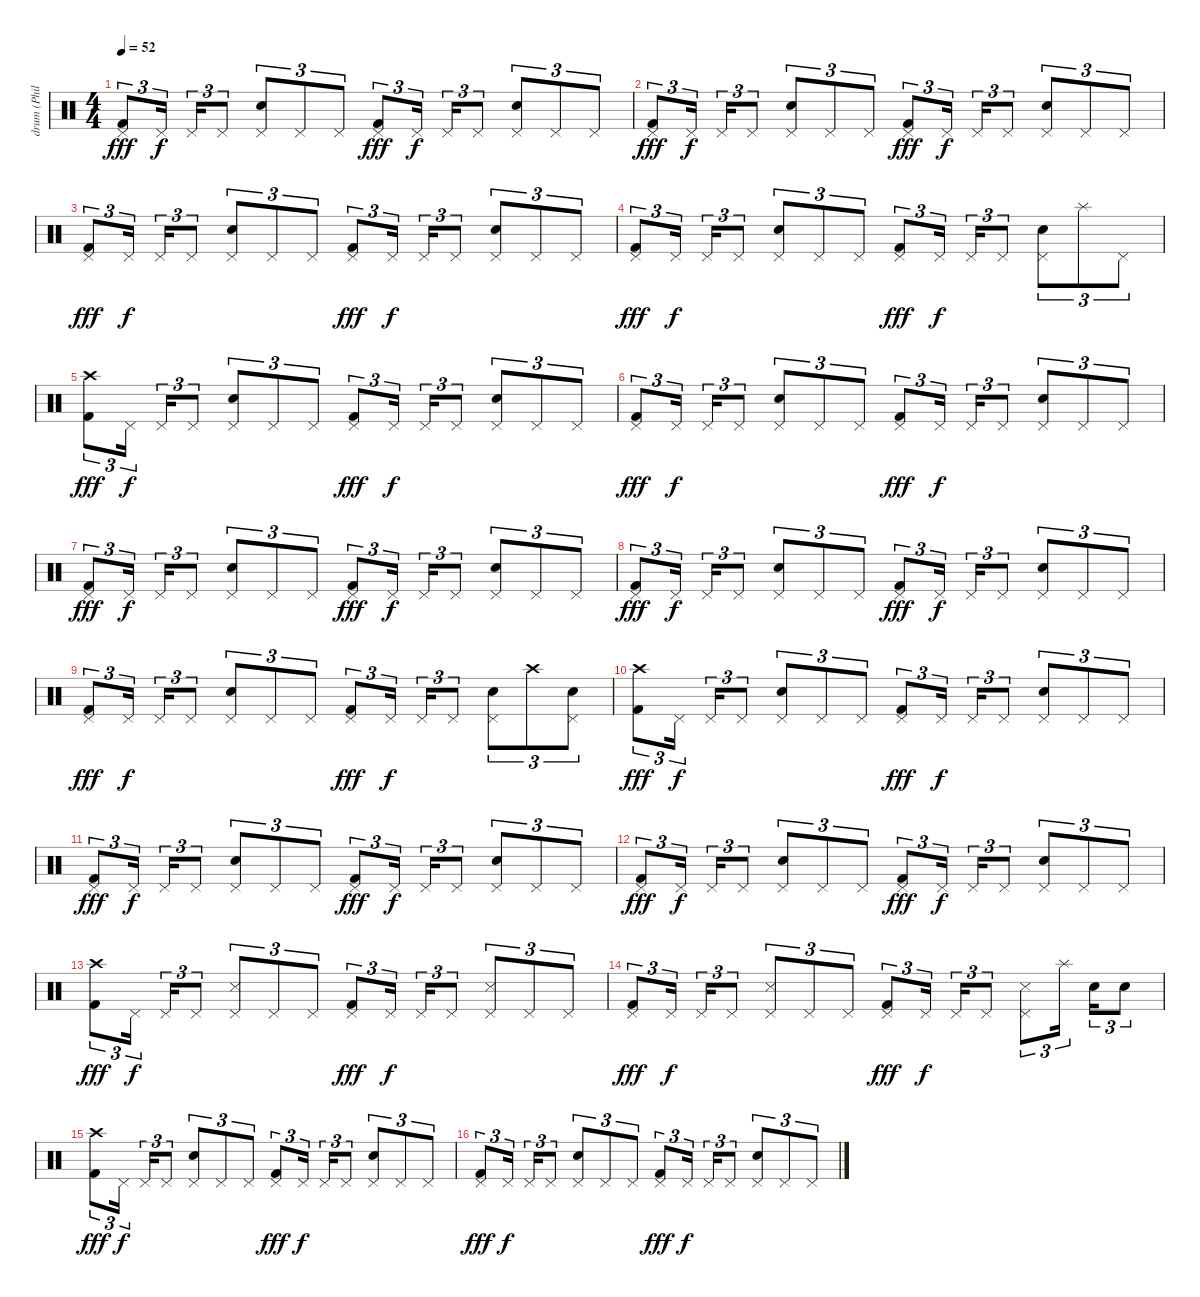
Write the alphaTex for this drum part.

\track ("drum (Phil)" "drum (Phil") {instrument percussion}
\staff {score}
\articulation defaults
\ts (4 4)
\tempo 52
\clef neutral
\ks c
("Pedal Hi-Hat (hit)" "Kick (hit) 2").8{tu (3 2) dy fff} "Pedal Hi-Hat (hit)".16{tu (3 2) dy f} "Pedal Hi-Hat (hit)".16{tu (3 2)} "Pedal Hi-Hat (hit)".8{tu (3 2)} ("Pedal Hi-Hat (hit)" "Electric Snare (hit)").8{tu (3 2)} "Pedal Hi-Hat (hit)".8{tu (3 2)} "Pedal Hi-Hat (hit)".8{tu (3 2)} ("Pedal Hi-Hat (hit)" "Kick (hit) 2").8{tu (3 2) dy fff} "Pedal Hi-Hat (hit)".16{tu (3 2) dy f} "Pedal Hi-Hat (hit)".16{tu (3 2)} "Pedal Hi-Hat (hit)".8{tu (3 2)} ("Pedal Hi-Hat (hit)" "Electric Snare (hit)").8{tu (3 2)} "Pedal Hi-Hat (hit)".8{tu (3 2)} "Pedal Hi-Hat (hit)".8{tu (3 2)} |
("Pedal Hi-Hat (hit)" "Kick (hit) 2").8{tu (3 2) dy fff} "Pedal Hi-Hat (hit)".16{tu (3 2) dy f} "Pedal Hi-Hat (hit)".16{tu (3 2)} "Pedal Hi-Hat (hit)".8{tu (3 2)} ("Pedal Hi-Hat (hit)" "Electric Snare (hit)").8{tu (3 2)} "Pedal Hi-Hat (hit)".8{tu (3 2)} "Pedal Hi-Hat (hit)".8{tu (3 2)} ("Pedal Hi-Hat (hit)" "Kick (hit) 2").8{tu (3 2) dy fff} "Pedal Hi-Hat (hit)".16{tu (3 2) dy f} "Pedal Hi-Hat (hit)".16{tu (3 2)} "Pedal Hi-Hat (hit)".8{tu (3 2)} ("Pedal Hi-Hat (hit)" "Electric Snare (hit)").8{tu (3 2)} "Pedal Hi-Hat (hit)".8{tu (3 2)} "Pedal Hi-Hat (hit)".8{tu (3 2)} |
("Pedal Hi-Hat (hit)" "Kick (hit) 2").8{tu (3 2) dy fff} "Pedal Hi-Hat (hit)".16{tu (3 2) dy f} "Pedal Hi-Hat (hit)".16{tu (3 2)} "Pedal Hi-Hat (hit)".8{tu (3 2)} ("Pedal Hi-Hat (hit)" "Electric Snare (hit)").8{tu (3 2)} "Pedal Hi-Hat (hit)".8{tu (3 2)} "Pedal Hi-Hat (hit)".8{tu (3 2)} ("Pedal Hi-Hat (hit)" "Kick (hit) 2").8{tu (3 2) dy fff} "Pedal Hi-Hat (hit)".16{tu (3 2) dy f} "Pedal Hi-Hat (hit)".16{tu (3 2)} "Pedal Hi-Hat (hit)".8{tu (3 2)} ("Pedal Hi-Hat (hit)" "Electric Snare (hit)").8{tu (3 2)} "Pedal Hi-Hat (hit)".8{tu (3 2)} "Pedal Hi-Hat (hit)".8{tu (3 2)} |
("Pedal Hi-Hat (hit)" "Kick (hit) 2").8{tu (3 2) dy fff} "Pedal Hi-Hat (hit)".16{tu (3 2) dy f} "Pedal Hi-Hat (hit)".16{tu (3 2)} "Pedal Hi-Hat (hit)".8{tu (3 2)} ("Pedal Hi-Hat (hit)" "Electric Snare (hit)").8{tu (3 2)} "Pedal Hi-Hat (hit)".8{tu (3 2)} "Pedal Hi-Hat (hit)".8{tu (3 2)} ("Pedal Hi-Hat (hit)" "Kick (hit) 2").8{tu (3 2) dy fff} "Pedal Hi-Hat (hit)".16{tu (3 2) dy f} "Pedal Hi-Hat (hit)".16{tu (3 2)} "Pedal Hi-Hat (hit)".8{tu (3 2)} ("Pedal Hi-Hat (hit)" "Electric Snare (hit)").8{tu (3 2)} "Splash (hit)".8{tu (3 2)} "Pedal Hi-Hat (hit)".8{tu (3 2)} |
("Crash high (hit)" "Kick (hit) 2").8{tu (3 2) dy fff} "Pedal Hi-Hat (hit)".16{tu (3 2) dy f} "Pedal Hi-Hat (hit)".16{tu (3 2)} "Pedal Hi-Hat (hit)".8{tu (3 2)} ("Pedal Hi-Hat (hit)" "Electric Snare (hit)").8{tu (3 2)} "Pedal Hi-Hat (hit)".8{tu (3 2)} "Pedal Hi-Hat (hit)".8{tu (3 2)} ("Pedal Hi-Hat (hit)" "Kick (hit) 2").8{tu (3 2) dy fff} "Pedal Hi-Hat (hit)".16{tu (3 2) dy f} "Pedal Hi-Hat (hit)".16{tu (3 2)} "Pedal Hi-Hat (hit)".8{tu (3 2)} ("Pedal Hi-Hat (hit)" "Electric Snare (hit)").8{tu (3 2)} "Pedal Hi-Hat (hit)".8{tu (3 2)} "Pedal Hi-Hat (hit)".8{tu (3 2)} |
("Pedal Hi-Hat (hit)" "Kick (hit) 2").8{tu (3 2) dy fff} "Pedal Hi-Hat (hit)".16{tu (3 2) dy f} "Pedal Hi-Hat (hit)".16{tu (3 2)} "Pedal Hi-Hat (hit)".8{tu (3 2)} ("Pedal Hi-Hat (hit)" "Electric Snare (hit)").8{tu (3 2)} "Pedal Hi-Hat (hit)".8{tu (3 2)} "Pedal Hi-Hat (hit)".8{tu (3 2)} ("Pedal Hi-Hat (hit)" "Kick (hit) 2").8{tu (3 2) dy fff} "Pedal Hi-Hat (hit)".16{tu (3 2) dy f} "Pedal Hi-Hat (hit)".16{tu (3 2)} "Pedal Hi-Hat (hit)".8{tu (3 2)} ("Pedal Hi-Hat (hit)" "Electric Snare (hit)").8{tu (3 2)} "Pedal Hi-Hat (hit)".8{tu (3 2)} "Pedal Hi-Hat (hit)".8{tu (3 2)} |
("Pedal Hi-Hat (hit)" "Kick (hit) 2").8{tu (3 2) dy fff} "Pedal Hi-Hat (hit)".16{tu (3 2) dy f} "Pedal Hi-Hat (hit)".16{tu (3 2)} "Pedal Hi-Hat (hit)".8{tu (3 2)} ("Pedal Hi-Hat (hit)" "Electric Snare (hit)").8{tu (3 2)} "Pedal Hi-Hat (hit)".8{tu (3 2)} "Pedal Hi-Hat (hit)".8{tu (3 2)} ("Pedal Hi-Hat (hit)" "Kick (hit) 2").8{tu (3 2) dy fff} "Pedal Hi-Hat (hit)".16{tu (3 2) dy f} "Pedal Hi-Hat (hit)".16{tu (3 2)} "Pedal Hi-Hat (hit)".8{tu (3 2)} ("Pedal Hi-Hat (hit)" "Electric Snare (hit)").8{tu (3 2)} "Pedal Hi-Hat (hit)".8{tu (3 2)} "Pedal Hi-Hat (hit)".8{tu (3 2)} |
("Pedal Hi-Hat (hit)" "Kick (hit) 2").8{tu (3 2) dy fff} "Pedal Hi-Hat (hit)".16{tu (3 2) dy f} "Pedal Hi-Hat (hit)".16{tu (3 2)} "Pedal Hi-Hat (hit)".8{tu (3 2)} ("Pedal Hi-Hat (hit)" "Electric Snare (hit)").8{tu (3 2)} "Pedal Hi-Hat (hit)".8{tu (3 2)} "Pedal Hi-Hat (hit)".8{tu (3 2)} ("Pedal Hi-Hat (hit)" "Kick (hit) 2").8{tu (3 2) dy fff} "Pedal Hi-Hat (hit)".16{tu (3 2) dy f} "Pedal Hi-Hat (hit)".16{tu (3 2)} "Pedal Hi-Hat (hit)".8{tu (3 2)} ("Pedal Hi-Hat (hit)" "Electric Snare (hit)").8{tu (3 2)} "Pedal Hi-Hat (hit)".8{tu (3 2)} "Pedal Hi-Hat (hit)".8{tu (3 2)} |
("Pedal Hi-Hat (hit)" "Kick (hit) 2").8{tu (3 2) dy fff} "Pedal Hi-Hat (hit)".16{tu (3 2) dy f} "Pedal Hi-Hat (hit)".16{tu (3 2)} "Pedal Hi-Hat (hit)".8{tu (3 2)} ("Pedal Hi-Hat (hit)" "Electric Snare (hit)").8{tu (3 2)} "Pedal Hi-Hat (hit)".8{tu (3 2)} "Pedal Hi-Hat (hit)".8{tu (3 2)} ("Pedal Hi-Hat (hit)" "Kick (hit) 2").8{tu (3 2) dy fff} "Pedal Hi-Hat (hit)".16{tu (3 2) dy f} "Pedal Hi-Hat (hit)".16{tu (3 2)} "Pedal Hi-Hat (hit)".8{tu (3 2)} ("Pedal Hi-Hat (hit)" "Electric Snare (hit)").8{tu (3 2)} "Crash high (hit)".8{tu (3 2)} ("Pedal Hi-Hat (hit)" "Electric Snare (hit)").8{tu (3 2)} |
("Crash high (hit)" "Kick (hit) 2").8{tu (3 2) dy fff} "Pedal Hi-Hat (hit)".16{tu (3 2) dy f} "Pedal Hi-Hat (hit)".16{tu (3 2)} "Pedal Hi-Hat (hit)".8{tu (3 2)} ("Pedal Hi-Hat (hit)" "Electric Snare (hit)").8{tu (3 2)} "Pedal Hi-Hat (hit)".8{tu (3 2)} "Pedal Hi-Hat (hit)".8{tu (3 2)} ("Pedal Hi-Hat (hit)" "Kick (hit) 2").8{tu (3 2) dy fff} "Pedal Hi-Hat (hit)".16{tu (3 2) dy f} "Pedal Hi-Hat (hit)".16{tu (3 2)} "Pedal Hi-Hat (hit)".8{tu (3 2)} ("Pedal Hi-Hat (hit)" "Electric Snare (hit)").8{tu (3 2)} "Pedal Hi-Hat (hit)".8{tu (3 2)} "Pedal Hi-Hat (hit)".8{tu (3 2)} |
("Pedal Hi-Hat (hit)" "Kick (hit) 2").8{tu (3 2) dy fff} "Pedal Hi-Hat (hit)".16{tu (3 2) dy f} "Pedal Hi-Hat (hit)".16{tu (3 2)} "Pedal Hi-Hat (hit)".8{tu (3 2)} ("Pedal Hi-Hat (hit)" "Electric Snare (hit)").8{tu (3 2)} "Pedal Hi-Hat (hit)".8{tu (3 2)} "Pedal Hi-Hat (hit)".8{tu (3 2)} ("Pedal Hi-Hat (hit)" "Kick (hit) 2").8{tu (3 2) dy fff} "Pedal Hi-Hat (hit)".16{tu (3 2) dy f} "Pedal Hi-Hat (hit)".16{tu (3 2)} "Pedal Hi-Hat (hit)".8{tu (3 2)} ("Pedal Hi-Hat (hit)" "Electric Snare (hit)").8{tu (3 2)} "Pedal Hi-Hat (hit)".8{tu (3 2)} "Pedal Hi-Hat (hit)".8{tu (3 2)} |
("Pedal Hi-Hat (hit)" "Kick (hit) 2").8{tu (3 2) dy fff} "Pedal Hi-Hat (hit)".16{tu (3 2) dy f} "Pedal Hi-Hat (hit)".16{tu (3 2)} "Pedal Hi-Hat (hit)".8{tu (3 2)} ("Pedal Hi-Hat (hit)" "Electric Snare (hit)").8{tu (3 2)} "Pedal Hi-Hat (hit)".8{tu (3 2)} "Pedal Hi-Hat (hit)".8{tu (3 2)} ("Pedal Hi-Hat (hit)" "Kick (hit) 2").8{tu (3 2) dy fff} "Pedal Hi-Hat (hit)".16{tu (3 2) dy f} "Pedal Hi-Hat (hit)".16{tu (3 2)} "Pedal Hi-Hat (hit)".8{tu (3 2)} ("Pedal Hi-Hat (hit)" "Electric Snare (hit)").8{tu (3 2)} "Pedal Hi-Hat (hit)".8{tu (3 2)} "Pedal Hi-Hat (hit)".8{tu (3 2)} |
("Crash high (hit)" "Kick (hit) 2").8{tu (3 2) dy fff} "Pedal Hi-Hat (hit)".16{tu (3 2) dy f} "Pedal Hi-Hat (hit)".16{tu (3 2)} "Pedal Hi-Hat (hit)".8{tu (3 2)} ("Pedal Hi-Hat (hit)" "Snare (side stick) 3").8{tu (3 2)} "Pedal Hi-Hat (hit)".8{tu (3 2)} "Pedal Hi-Hat (hit)".8{tu (3 2)} ("Pedal Hi-Hat (hit)" "Kick (hit) 2").8{tu (3 2) dy fff} "Pedal Hi-Hat (hit)".16{tu (3 2) dy f} "Pedal Hi-Hat (hit)".16{tu (3 2)} "Pedal Hi-Hat (hit)".8{tu (3 2)} ("Pedal Hi-Hat (hit)" "Snare (side stick) 3").8{tu (3 2)} "Pedal Hi-Hat (hit)".8{tu (3 2)} "Pedal Hi-Hat (hit)".8{tu (3 2)} |
("Pedal Hi-Hat (hit)" "Kick (hit) 2").8{tu (3 2) dy fff} "Pedal Hi-Hat (hit)".16{tu (3 2) dy f} "Pedal Hi-Hat (hit)".16{tu (3 2)} "Pedal Hi-Hat (hit)".8{tu (3 2)} ("Pedal Hi-Hat (hit)" "Snare (side stick) 3").8{tu (3 2)} "Pedal Hi-Hat (hit)".8{tu (3 2)} "Pedal Hi-Hat (hit)".8{tu (3 2)} ("Pedal Hi-Hat (hit)" "Kick (hit) 2").8{tu (3 2) dy fff} "Pedal Hi-Hat (hit)".16{tu (3 2) dy f} "Pedal Hi-Hat (hit)".16{tu (3 2)} "Pedal Hi-Hat (hit)".8{tu (3 2)} ("Pedal Hi-Hat (hit)" "Snare (side stick) 3").8{tu (3 2)} "Splash (hit)".16{tu (3 2)} "Electric Snare (hit)".16{tu (3 2)} "Electric Snare (hit)".8{tu (3 2)} |
("Crash high (hit)" "Kick (hit) 2").8{tu (3 2) dy fff} "Pedal Hi-Hat (hit)".16{tu (3 2) dy f} "Pedal Hi-Hat (hit)".16{tu (3 2)} "Pedal Hi-Hat (hit)".8{tu (3 2)} ("Pedal Hi-Hat (hit)" "Electric Snare (hit)").8{tu (3 2)} "Pedal Hi-Hat (hit)".8{tu (3 2)} "Pedal Hi-Hat (hit)".8{tu (3 2)} ("Pedal Hi-Hat (hit)" "Kick (hit) 2").8{tu (3 2) dy fff} "Pedal Hi-Hat (hit)".16{tu (3 2) dy f} "Pedal Hi-Hat (hit)".16{tu (3 2)} "Pedal Hi-Hat (hit)".8{tu (3 2)} ("Pedal Hi-Hat (hit)" "Electric Snare (hit)").8{tu (3 2)} "Pedal Hi-Hat (hit)".8{tu (3 2)} "Pedal Hi-Hat (hit)".8{tu (3 2)} |
("Pedal Hi-Hat (hit)" "Kick (hit) 2").8{tu (3 2) dy fff} "Pedal Hi-Hat (hit)".16{tu (3 2) dy f} "Pedal Hi-Hat (hit)".16{tu (3 2)} "Pedal Hi-Hat (hit)".8{tu (3 2)} ("Pedal Hi-Hat (hit)" "Electric Snare (hit)").8{tu (3 2)} "Pedal Hi-Hat (hit)".8{tu (3 2)} "Pedal Hi-Hat (hit)".8{tu (3 2)} ("Pedal Hi-Hat (hit)" "Kick (hit) 2").8{tu (3 2) dy fff} "Pedal Hi-Hat (hit)".16{tu (3 2) dy f} "Pedal Hi-Hat (hit)".16{tu (3 2)} "Pedal Hi-Hat (hit)".8{tu (3 2)} ("Pedal Hi-Hat (hit)" "Electric Snare (hit)").8{tu (3 2)} "Pedal Hi-Hat (hit)".8{tu (3 2)} "Pedal Hi-Hat (hit)".8{tu (3 2)}
